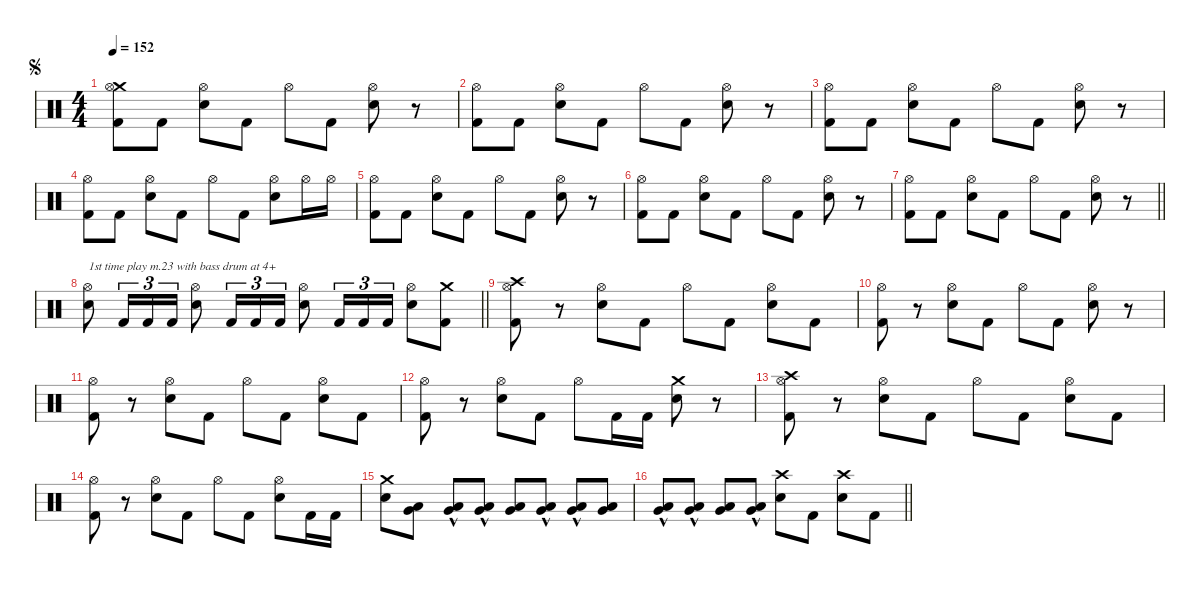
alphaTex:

\defaultSystemsLayout 4
\hideDynamics
\bracketExtendMode nobrackets
\singleTrackTrackNamePolicy hidden
\multiTrackTrackNamePolicy hidden
\firstSystemTrackNameMode fullname
\firstSystemTrackNameOrientation horizontal
\otherSystemsTrackNameOrientation horizontal
\track ("Percussion" "drm.") {defaultSystemsLayout 4 instrument percussion}
\staff {score}
\articulation defaults
\ts (4 4)
\jump segno
\tempo 152
\clef neutral
\ks c
("Crash medium (hit)" "Hi-Hat (open)" "Kick (hit) 2").8{dy f beam Down} "Kick (hit) 2".8{beam Down} ("Hi-Hat (open)" "Snare (hit) 2").8{beam Down} "Kick (hit) 2".8{beam Down} "Hi-Hat (open)".8{beam Down} "Kick (hit) 2".8{beam Down} ("Hi-Hat (open)" "Snare (hit) 2").8{beam Down} r.8{beam Down} |
("Hi-Hat (open)" "Kick (hit) 2").8{beam Down} "Kick (hit) 2".8{beam Down} ("Hi-Hat (open)" "Snare (hit) 2").8{beam Down} "Kick (hit) 2".8{beam Down} "Hi-Hat (open)".8{beam Down} "Kick (hit) 2".8{beam Down} ("Hi-Hat (open)" "Snare (hit) 2").8{beam Down} r.8{beam Down} |
("Hi-Hat (open)" "Kick (hit) 2").8{beam Down} "Kick (hit) 2".8{beam Down} ("Hi-Hat (open)" "Snare (hit) 2").8{beam Down} "Kick (hit) 2".8{beam Down} "Hi-Hat (open)".8{beam Down} "Kick (hit) 2".8{beam Down} ("Hi-Hat (open)" "Snare (hit) 2").8{beam Down} r.8{beam Down} |
("Hi-Hat (open)" "Kick (hit) 2").8{beam Down} "Kick (hit) 2".8{beam Down} ("Hi-Hat (open)" "Snare (hit) 2").8{beam Down} "Kick (hit) 2".8{beam Down} "Hi-Hat (open)".8{beam Down} "Kick (hit) 2".8{beam Down} ("Hi-Hat (open)" "Snare (hit) 2").8{beam Down} "Hi-Hat (open)".16{beam Down} "Hi-Hat (open)".16{beam Down} |
("Hi-Hat (open)" "Kick (hit) 2").8{beam Down} "Kick (hit) 2".8{beam Down} ("Hi-Hat (open)" "Snare (hit) 2").8{beam Down} "Kick (hit) 2".8{beam Down} "Hi-Hat (open)".8{beam Down} "Kick (hit) 2".8{beam Down} ("Hi-Hat (open)" "Snare (hit) 2").8{beam Down} r.8{beam Down} |
("Hi-Hat (open)" "Kick (hit) 2").8{beam Down} "Kick (hit) 2".8{beam Down} ("Hi-Hat (open)" "Snare (hit) 2").8{beam Down} "Kick (hit) 2".8{beam Down} "Hi-Hat (open)".8{beam Down} "Kick (hit) 2".8{beam Down} ("Hi-Hat (open)" "Snare (hit) 2").8{beam Down} r.8{beam Down} |
\barLineRight lightlight
("Hi-Hat (open)" "Kick (hit) 2").8{beam Down} "Kick (hit) 2".8{beam Down} ("Hi-Hat (open)" "Snare (hit) 2").8{beam Down} "Kick (hit) 2".8{beam Down} "Hi-Hat (open)".8{beam Down} "Kick (hit) 2".8{beam Down} ("Hi-Hat (open)" "Snare (hit) 2").8{beam Down} r.8{beam Down} |
\barLineRight lightlight
("Hi-Hat (open)" "Snare (hit) 2").8{txt "1st time play m.23 with bass drum at 4+" beam Down} "Kick (hit) 2".16{tu (3 2) beam Up} "Kick (hit) 2".16{tu (3 2) beam Up} "Kick (hit) 2".16{tu (3 2) beam Up} ("Hi-Hat (open)" "Snare (hit) 2").8{beam Down} "Kick (hit) 2".16{tu (3 2) beam Up} "Kick (hit) 2".16{tu (3 2) beam Up} "Kick (hit) 2".16{tu (3 2) beam Up} ("Hi-Hat (open)" "Snare (hit) 2").8{beam Down} "Kick (hit) 2".16{tu (3 2) beam Up} "Kick (hit) 2".16{tu (3 2) beam Up} "Kick (hit) 2".16{tu (3 2) beam Up} ("Hi-Hat (open)" "Snare (hit) 2").8{beam Down} ("Crash medium (hit)" "Kick (hit) 2").8{beam Down} |
("Crash high (hit)" "Hi-Hat (open)" "Kick (hit) 2").8{beam Down} r.8{beam Down} ("Hi-Hat (open)" "Snare (hit) 2").8{beam Down} "Kick (hit) 2".8{beam Down} "Hi-Hat (open)".8{beam Down} "Kick (hit) 2".8{beam Down} ("Hi-Hat (open)" "Snare (hit) 2").8{beam Down} "Kick (hit) 2".8{beam Down} |
("Hi-Hat (open)" "Kick (hit) 2").8{beam Down} r.8{beam Down} ("Hi-Hat (open)" "Snare (hit) 2").8{beam Down} "Kick (hit) 2".8{beam Down} "Hi-Hat (open)".8{beam Down} "Kick (hit) 2".8{beam Down} ("Hi-Hat (open)" "Snare (hit) 2").8{beam Down} r.8{beam Down} |
("Hi-Hat (open)" "Kick (hit) 2").8{beam Down} r.8{beam Down} ("Hi-Hat (open)" "Snare (hit) 2").8{beam Down} "Kick (hit) 2".8{beam Down} "Hi-Hat (open)".8{beam Down} "Kick (hit) 2".8{beam Down} ("Hi-Hat (open)" "Snare (hit) 2").8{beam Down} "Kick (hit) 2".8{beam Down} |
("Hi-Hat (open)" "Kick (hit) 2").8{beam Down} r.8{beam Down} ("Hi-Hat (open)" "Snare (hit) 2").8{beam Down} "Kick (hit) 2".8{beam Down} "Hi-Hat (open)".8{beam Down} "Kick (hit) 2".16{beam Down} "Kick (hit) 2".16{beam Down} ("Crash medium (hit)" "Snare (hit) 2").8{beam Down} r.8{beam Down} |
("Crash high (hit)" "Hi-Hat (open)" "Kick (hit) 2").8{beam Down} r.8{beam Down} ("Hi-Hat (open)" "Snare (hit) 2").8{beam Down} "Kick (hit) 2".8{beam Down} "Hi-Hat (open)".8{beam Down} "Kick (hit) 2".8{beam Down} ("Hi-Hat (open)" "Snare (hit) 2").8{beam Down} "Kick (hit) 2".8{beam Down} |
("Hi-Hat (open)" "Kick (hit) 2").8{beam Down} r.8{beam Down} ("Hi-Hat (open)" "Snare (hit) 2").8{beam Down} "Kick (hit) 2".8{beam Down} "Hi-Hat (open)".8{beam Down} "Kick (hit) 2".8{beam Down} ("Hi-Hat (open)" "Snare (hit) 2").8{beam Down} "Kick (hit) 2".16{beam Down} "Kick (hit) 2".16{beam Down} |
("Crash medium (hit)" "Snare (hit) 2").8{beam Down} ("Low Tom (hit)" "Very Low Tom (hit)").8{beam Down} ("Low Tom (hit)"{hac} "Very Low Tom (hit)"{hac}).8{beam Up} ("Low Tom (hit)"{hac} "Very Low Tom (hit)"{hac}).8{beam Up} ("Low Tom (hit)" "Very Low Tom (hit)").8{beam Up} ("Low Tom (hit)"{hac} "Very Low Tom (hit)"{hac}).8{beam Up} ("Low Tom (hit)"{hac} "Very Low Tom (hit)"{hac}).8{beam Up} ("Low Tom (hit)" "Very Low Tom (hit)").8{beam Up} |
\barLineRight lightlight
("Low Tom (hit)"{hac} "Very Low Tom (hit)"{hac}).8{beam Up} ("Low Tom (hit)"{hac} "Very Low Tom (hit)"{hac}).8{beam Up} ("Low Tom (hit)" "Very Low Tom (hit)").8{beam Up} ("Low Tom (hit)"{hac} "Very Low Tom (hit)"{hac}).8{beam Up} ("Crash high (hit)" "Snare (hit) 2").8{beam Down} "Kick (hit) 2".8{beam Down} ("Crash high (hit)" "Snare (hit) 2").8{beam Down} "Kick (hit) 2".8{beam Down}
